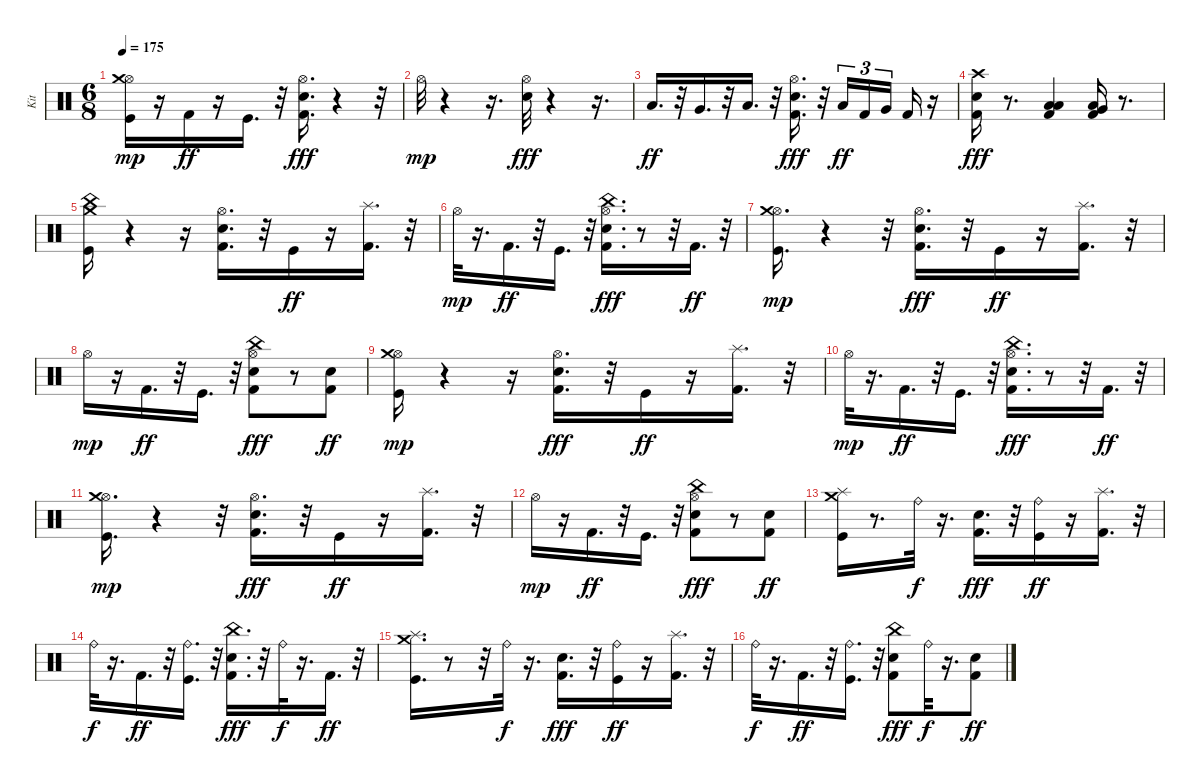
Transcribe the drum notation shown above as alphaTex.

\track ("Kit" "Kit") {instrument percussion}
\staff {score}
\articulation defaults
\ts (6 8)
\tempo 175
\clef neutral
\ks c
("Kick (hit)" "Hi-Hat (open)" "Crash medium (hit)").16{dy mp} r.16 "Kick (hit) 2".16{dy ff} r.16 "Kick (hit)".16{d} r.32 ("Kick (hit) 2" "Snare (hit) 2" "Hi-Hat (open)").16{d dy fff} r.4 r.32 |
"Hi-Hat (open)".32{dy mp} r.4 r.16{d} ("Snare (hit) 2" "Hi-Hat (open)").32{dy fff} r.4 r.16{d} |
"Low Tom (hit)".16{d dy ff} r.32 "Very Low Tom (hit)".16{d} r.32 "Low Floor Tom (hit)".16{d} r.32 ("Kick (hit) 2" "Snare (hit) 2" "Hi-Hat (open)").16{d dy fff} r.32 "Low Tom (hit)".16{tu (3 2) dy ff} "Kick (hit) 2".16{tu (3 2)} "Very Low Tom (hit)".16{tu (3 2) beam splitsecondary} "Kick (hit) 2".16 r.16 |
("Kick (hit) 2" "Snare (hit) 2" "Crash high (hit)").16{dy fff} r.8{d} ("Kick (hit) 2" "Low Floor Tom (hit)" "Low Floor Tom (hit)").4 ("Kick (hit) 2" "Low Floor Tom (hit)" "Very Low Tom (hit)").16 r.8{d} |
("Kick (hit)" "China (hit)" "Crash medium (hit)").16 r.4 r.16 ("Kick (hit) 2" "Snare (hit) 2" "Hi-Hat (open)").16{d} r.32 "Kick (hit)".16{dy ff} r.16 ("Kick (hit) 2" "Splash (hit)").16{d} r.32 |
"Hi-Hat (open)".32{dy mp} r.16{d} "Kick (hit) 2".16{d dy ff} r.32 "Kick (hit)".16{d} r.32 ("Kick (hit) 2" "Snare (hit) 2" "Hi-Hat (open)" "China (hit)").16{d dy fff} r.8 r.32 "Kick (hit) 2".16{d dy ff} r.32 |
("Kick (hit)" "Hi-Hat (open)" "Crash medium (hit)").16{d dy mp} r.4 r.32 ("Kick (hit) 2" "Snare (hit) 2" "Hi-Hat (open)").16{d dy fff} r.32 "Kick (hit)".16{dy ff} r.16 ("Kick (hit) 2" "Splash (hit)").16{d} r.32 |
"Hi-Hat (open)".16{dy mp} r.16 "Kick (hit) 2".16{d dy ff} r.32 "Kick (hit)".16{d} r.32 ("Kick (hit) 2" "Snare (hit) 2" "Hi-Hat (open)" "China (hit)").8{dy fff} r.8 ("Kick (hit) 2" "Snare (hit) 2").8{dy ff} |
("Kick (hit)" "Hi-Hat (open)" "Crash medium (hit)").16{dy mp} r.4 r.16 ("Kick (hit) 2" "Snare (hit) 2" "Hi-Hat (open)").16{d dy fff} r.32 "Kick (hit)".16{dy ff} r.16 ("Kick (hit) 2" "Splash (hit)").16{d} r.32 |
"Hi-Hat (open)".32{dy mp} r.16{d} "Kick (hit) 2".16{d dy ff} r.32 "Kick (hit)".16{d} r.32 ("Kick (hit) 2" "Snare (hit) 2" "Hi-Hat (open)" "China (hit)").16{d dy fff} r.8 r.32 "Kick (hit) 2".16{d dy ff} r.32 |
("Kick (hit)" "Hi-Hat (open)" "Crash medium (hit)").16{d dy mp} r.4 r.32 ("Kick (hit) 2" "Snare (hit) 2" "Hi-Hat (open)").16{d dy fff} r.32 "Kick (hit)".16{dy ff} r.16 ("Kick (hit) 2" "Splash (hit)").16{d} r.32 |
"Hi-Hat (open)".16{dy mp} r.16 "Kick (hit) 2".16{d dy ff} r.32 "Kick (hit)".16{d} r.32 ("Kick (hit) 2" "Snare (hit) 2" "Hi-Hat (open)" "China (hit)").8{dy fff} r.8 ("Kick (hit) 2" "Snare (hit) 2").8{dy ff} |
("Kick (hit)" "Splash (hit)" "Crash medium (hit)").16 r.8{d} "Ride (bell)".32{dy f} r.16{d} ("Kick (hit) 2" "Snare (hit) 2").16{d dy fff} r.32 ("Kick (hit)" "Ride (bell)").16{dy ff} r.16 ("Kick (hit) 2" "Splash (hit)").16{d} r.32 |
"Ride (bell)".32{dy f} r.16{d} "Kick (hit) 2".16{d dy ff} r.32 ("Kick (hit)" "Ride (bell)").16{d} r.32 ("Kick (hit) 2" "Snare (hit) 2" "China (hit)").16{d dy fff} r.32 "Ride (bell)".32{dy f} r.16{d} "Kick (hit) 2".16{d dy ff} r.32 |
("Kick (hit)" "Splash (hit)" "Crash medium (hit)").16{d} r.8 r.32 "Ride (bell)".32{dy f} r.16{d} ("Kick (hit) 2" "Snare (hit) 2").16{d dy fff} r.32 ("Kick (hit)" "Ride (bell)").16{dy ff} r.16 ("Kick (hit) 2" "Splash (hit)").16{d} r.32 |
"Ride (bell)".32{dy f} r.16{d} "Kick (hit) 2".16{d dy ff} r.32 ("Kick (hit)" "Ride (bell)").16{d} r.32 ("Kick (hit) 2" "Snare (hit) 2" "China (hit)").8{dy fff} "Ride (bell)".32{dy f} r.16{d} ("Kick (hit) 2" "Snare (hit) 2").8{dy ff}
